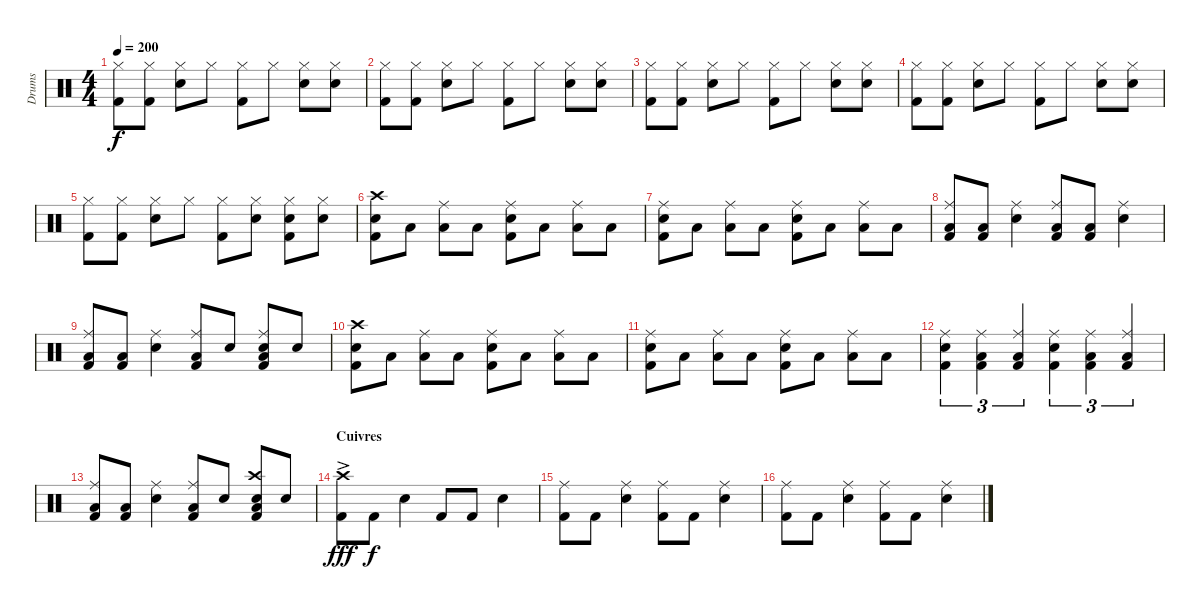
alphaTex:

\track ("Drums" "Drums") {instrument percussion}
\staff {score}
\articulation defaults
\ts (4 4)
\tempo 200
\clef neutral
\ks c
("Hi-Hat (closed)" "Kick (hit) 2").8{dy f} ("Hi-Hat (closed)" "Kick (hit) 2").8 ("Hi-Hat (closed)" "Snare (hit) 2").8 "Hi-Hat (closed)".8 ("Hi-Hat (closed)" "Kick (hit) 2").8 "Hi-Hat (closed)".8 ("Hi-Hat (closed)" "Snare (hit) 2").8 ("Hi-Hat (closed)" "Snare (hit) 2").8 |
("Hi-Hat (closed)" "Kick (hit) 2").8 ("Hi-Hat (closed)" "Kick (hit) 2").8 ("Hi-Hat (closed)" "Snare (hit) 2").8 "Hi-Hat (closed)".8 ("Hi-Hat (closed)" "Kick (hit) 2").8 "Hi-Hat (closed)".8 ("Hi-Hat (closed)" "Snare (hit) 2").8 ("Hi-Hat (closed)" "Snare (hit) 2").8 |
("Hi-Hat (closed)" "Kick (hit) 2").8 ("Hi-Hat (closed)" "Kick (hit) 2").8 ("Hi-Hat (closed)" "Snare (hit) 2").8 "Hi-Hat (closed)".8 ("Hi-Hat (closed)" "Kick (hit) 2").8 "Hi-Hat (closed)".8 ("Hi-Hat (closed)" "Snare (hit) 2").8 ("Hi-Hat (closed)" "Snare (hit) 2").8 |
("Hi-Hat (closed)" "Kick (hit) 2").8 ("Hi-Hat (closed)" "Kick (hit) 2").8 ("Hi-Hat (closed)" "Snare (hit) 2").8 "Hi-Hat (closed)".8 ("Hi-Hat (closed)" "Kick (hit) 2").8 "Hi-Hat (closed)".8 ("Hi-Hat (closed)" "Snare (hit) 2").8 ("Hi-Hat (closed)" "Snare (hit) 2").8 |
("Hi-Hat (closed)" "Kick (hit) 2").8 ("Hi-Hat (closed)" "Kick (hit) 2").8 ("Hi-Hat (closed)" "Snare (hit) 2").8 "Hi-Hat (closed)".8 ("Hi-Hat (closed)" "Kick (hit) 2").8 ("Hi-Hat (closed)" "Snare (hit) 2").8 ("Hi-Hat (closed)" "Snare (hit) 2" "Kick (hit) 2").8 ("Hi-Hat (closed)" "Snare (hit) 2").8 |
("Crash high (hit)" "Snare (hit) 2" "Kick (hit) 2").8 "Low Tom (hit)".8 ("Ride (middle)" "Low Floor Tom (hit)").8 "Low Floor Tom (hit)".8 ("Ride (middle)" "Snare (hit) 2" "Kick (hit) 2").8 "Low Tom (hit)".8 ("Ride (middle)" "Low Floor Tom (hit)").8 "Low Floor Tom (hit)".8 |
("Ride (middle)" "Snare (hit) 2" "Kick (hit) 2").8 "Low Tom (hit)".8 ("Ride (middle)" "Low Floor Tom (hit)").8 "Low Floor Tom (hit)".8 ("Ride (middle)" "Snare (hit) 2" "Kick (hit) 2").8 "Low Tom (hit)".8 ("Ride (middle)" "Low Floor Tom (hit)").8 "Low Floor Tom (hit)".8 |
("Ride (middle)" "Low Floor Tom (hit)" "Kick (hit) 2").8 ("Low Floor Tom (hit)" "Kick (hit) 2").8 ("Ride (middle)" "Snare (hit) 2").4 ("Ride (middle)" "Low Floor Tom (hit)" "Kick (hit) 2").8 ("Low Floor Tom (hit)" "Kick (hit) 2").8 ("Ride (middle)" "Snare (hit) 2").4 |
("Ride (middle)" "Low Floor Tom (hit)" "Kick (hit) 2").8 ("Low Floor Tom (hit)" "Kick (hit) 2").8 ("Ride (middle)" "Snare (hit) 2").4 ("Ride (middle)" "Low Floor Tom (hit)" "Kick (hit) 2").8 "Snare (hit) 2".8 ("Ride (middle)" "Snare (hit) 2" "Low Floor Tom (hit)" "Kick (hit) 2").8 "Snare (hit) 2".8 |
("Crash high (hit)" "Snare (hit) 2" "Kick (hit) 2").8 "Low Tom (hit)".8 ("Ride (middle)" "Low Floor Tom (hit)").8 "Low Floor Tom (hit)".8 ("Ride (middle)" "Snare (hit) 2" "Kick (hit) 2").8 "Low Tom (hit)".8 ("Ride (middle)" "Low Floor Tom (hit)").8 "Low Floor Tom (hit)".8 |
("Ride (middle)" "Snare (hit) 2" "Kick (hit) 2").8 "Low Tom (hit)".8 ("Ride (middle)" "Low Floor Tom (hit)").8 "Low Floor Tom (hit)".8 ("Ride (middle)" "Snare (hit) 2" "Kick (hit) 2").8 "Low Tom (hit)".8 ("Ride (middle)" "Low Floor Tom (hit)").8 "Low Floor Tom (hit)".8 |
("Ride (middle)" "Snare (hit) 2" "Kick (hit) 2").4{tu (3 2)} ("Ride (middle)" "Low Tom (hit)" "Kick (hit) 2").4{tu (3 2)} ("Ride (middle)" "Low Floor Tom (hit)" "Kick (hit) 2").4{tu (3 2)} ("Ride (middle)" "Snare (hit) 2" "Kick (hit) 2").4{tu (3 2)} ("Ride (middle)" "Low Tom (hit)" "Kick (hit) 2").4{tu (3 2)} ("Ride (middle)" "Low Floor Tom (hit)" "Kick (hit) 2").4{tu (3 2)} |
("Ride (middle)" "Low Floor Tom (hit)" "Kick (hit) 2").8 ("Low Floor Tom (hit)" "Kick (hit) 2").8 ("Ride (middle)" "Snare (hit) 2").4 ("Ride (middle)" "Low Floor Tom (hit)" "Kick (hit) 2").8 "Snare (hit) 2".8 ("Crash high (hit)" "Snare (hit) 2" "Low Floor Tom (hit)" "Kick (hit) 2").8 "Snare (hit) 2".8 |
\section ("" "Cuivres")
("Crash high (hit)"{ac} "Kick (hit) 2").8{dy fff} "Kick (hit) 2".8{dy f} "Snare (hit) 2".4 "Kick (hit) 2".8 "Kick (hit) 2".8 "Snare (hit) 2".4 |
("Ride (middle)" "Kick (hit) 2").8 "Kick (hit) 2".8 ("Ride (middle)" "Snare (hit) 2").4 ("Ride (middle)" "Kick (hit) 2").8 "Kick (hit) 2".8 ("Ride (middle)" "Snare (hit) 2").4 |
("Ride (middle)" "Kick (hit) 2").8 "Kick (hit) 2".8 ("Ride (middle)" "Snare (hit) 2").4 ("Ride (middle)" "Kick (hit) 2").8 "Kick (hit) 2".8 ("Ride (middle)" "Snare (hit) 2").4
